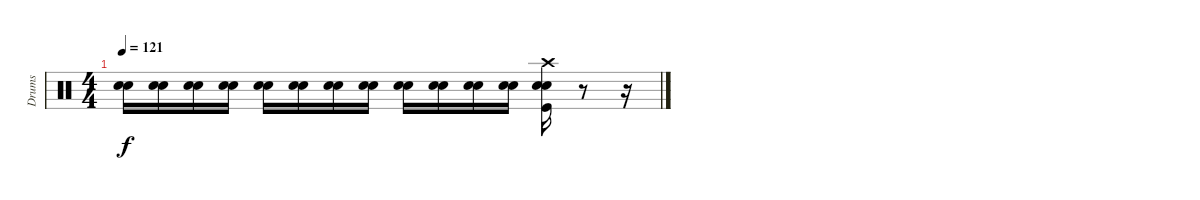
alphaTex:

\track ("Drums" "Drums") {instrument percussion}
\staff {score}
\articulation defaults
\ts (4 4)
\tempo 121
\clef neutral
\ks c
("Snare (hit)" "Snare (hit) 2").16{dy f} ("Snare (hit)" "Snare (hit) 2").16 ("Snare (hit)" "Snare (hit) 2").16 ("Snare (hit)" "Snare (hit) 2").16 ("Snare (hit)" "Snare (hit) 2").16 ("Snare (hit)" "Snare (hit) 2").16 ("Snare (hit)" "Snare (hit) 2").16 ("Snare (hit)" "Snare (hit) 2").16 ("Snare (hit)" "Snare (hit) 2").16 ("Snare (hit)" "Snare (hit) 2").16 ("Snare (hit)" "Snare (hit) 2").16 ("Snare (hit)" "Snare (hit) 2").16 ("Snare (hit)" "Kick (hit)" "Crash high (hit)" "Snare (hit) 2").16 r.8 r.16
